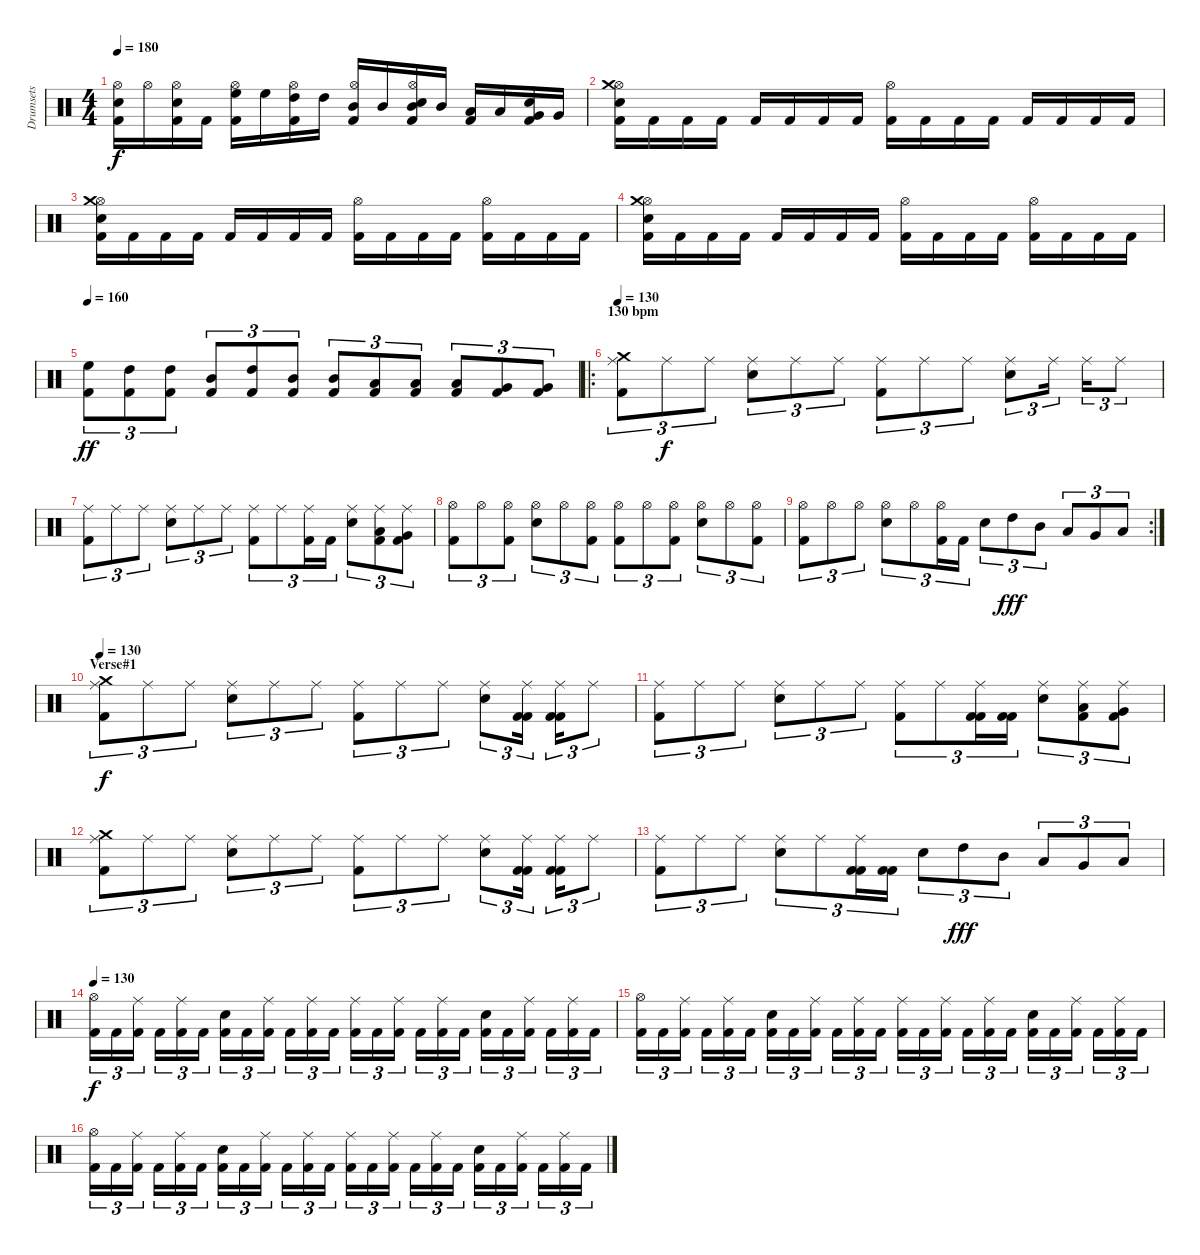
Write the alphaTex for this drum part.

\track ("Drumsets" "Drumsets") {instrument percussion}
\staff {score}
\articulation defaults
\ts (4 4)
\tempo 180
\clef neutral
\ks c
("Kick (hit) 2" "Snare (hit) 2" "Hi-Hat (open)").16{dy f} "Hi-Hat (open)".16 ("Kick (hit) 2" "Snare (hit) 2" "Hi-Hat (open)").16 "Kick (hit) 2".16 ("Kick (hit) 2" "Hi-Hat (open)" "High Floor Tom (hit)").16{balance 0} "High Floor Tom (hit)".16 ("Kick (hit) 2" "Hi-Hat (open)" "High Tom (hit)").16{balance 16} "High Tom (hit)".16 ("Kick (hit) 2" "Hi-Hat (open)" "Mid Tom (hit)").16{balance 0} "Mid Tom (hit)".16 ("Kick (hit) 2" "Snare (hit) 2" "Hi-Hat (open)" "Mid Tom (hit)").16{balance 16} "Mid Tom (hit)".16 ("Kick (hit) 2" "Low Tom (hit)").16{balance 0} "Low Tom (hit)".16 ("Kick (hit) 2" "Snare (hit) 2" "Very Low Tom (hit)").16{balance 16} "Very Low Tom (hit)".16 |
("Kick (hit) 2" "Snare (hit) 2" "Hi-Hat (open)" "Crash medium (hit)").16 "Kick (hit) 2".16 "Kick (hit) 2".16 "Kick (hit) 2".16 "Kick (hit) 2".16 "Kick (hit) 2".16 "Kick (hit) 2".16 "Kick (hit) 2".16 ("Kick (hit) 2" "Hi-Hat (open)").16 "Kick (hit) 2".16 "Kick (hit) 2".16 "Kick (hit) 2".16 "Kick (hit) 2".16 "Kick (hit) 2".16 "Kick (hit) 2".16 "Kick (hit) 2".16 |
("Kick (hit) 2" "Snare (hit) 2" "Hi-Hat (open)" "Crash medium (hit)").16 "Kick (hit) 2".16 "Kick (hit) 2".16 "Kick (hit) 2".16 "Kick (hit) 2".16 "Kick (hit) 2".16 "Kick (hit) 2".16 "Kick (hit) 2".16 ("Kick (hit) 2" "Hi-Hat (open)").16 "Kick (hit) 2".16 "Kick (hit) 2".16 "Kick (hit) 2".16 ("Kick (hit) 2" "Hi-Hat (open)").16 "Kick (hit) 2".16 "Kick (hit) 2".16 "Kick (hit) 2".16 |
("Kick (hit) 2" "Snare (hit) 2" "Hi-Hat (open)" "Crash medium (hit)").16 "Kick (hit) 2".16 "Kick (hit) 2".16 "Kick (hit) 2".16 "Kick (hit) 2".16 "Kick (hit) 2".16 "Kick (hit) 2".16 "Kick (hit) 2".16 ("Kick (hit) 2" "Hi-Hat (open)").16 "Kick (hit) 2".16 "Kick (hit) 2".16 "Kick (hit) 2".16 ("Kick (hit) 2" "Hi-Hat (open)").16 "Kick (hit) 2".16 "Kick (hit) 2".16 "Kick (hit) 2".16 |
\tempo 160
("Kick (hit) 2" "High Floor Tom (hit)").8{tu (3 2) dy ff} ("Kick (hit) 2" "High Tom (hit)").8{tu (3 2)} ("Kick (hit) 2" "High Tom (hit)").8{tu (3 2)} ("Kick (hit) 2" "Mid Tom (hit)").8{tu (3 2)} ("Kick (hit) 2" "High Tom (hit)").8{tu (3 2)} ("Kick (hit) 2" "Mid Tom (hit)").8{tu (3 2)} ("Kick (hit) 2" "Mid Tom (hit)").8{tu (3 2)} ("Kick (hit) 2" "Low Tom (hit)").8{tu (3 2)} ("Kick (hit) 2" "Low Tom (hit)").8{tu (3 2)} ("Kick (hit) 2" "Low Tom (hit)").8{tu (3 2)} ("Kick (hit) 2" "Very Low Tom (hit)").8{tu (3 2)} ("Kick (hit) 2" "Very Low Tom (hit)").8{tu (3 2)} |
\ro
\section ("" "130 bpm")
\tempo 130
("Kick (hit) 2" "Ride (middle)" "Crash medium (hit)").8{tu (3 2)} "Ride (middle)".8{tu (3 2) dy f} "Ride (middle)".8{tu (3 2)} ("Snare (hit) 2" "Ride (middle)").8{tu (3 2)} "Ride (middle)".8{tu (3 2)} "Ride (middle)".8{tu (3 2)} ("Kick (hit) 2" "Ride (middle)").8{tu (3 2)} "Ride (middle)".8{tu (3 2)} "Ride (middle)".8{tu (3 2)} ("Snare (hit) 2" "Ride (middle)").8{tu (3 2)} "Ride (middle)".16{tu (3 2)} "Ride (middle)".16{tu (3 2)} "Ride (middle)".8{tu (3 2)} |
("Kick (hit) 2" "Ride (middle)").8{tu (3 2)} "Ride (middle)".8{tu (3 2)} "Ride (middle)".8{tu (3 2)} ("Snare (hit) 2" "Ride (middle)").8{tu (3 2)} "Ride (middle)".8{tu (3 2)} "Ride (middle)".8{tu (3 2)} ("Kick (hit) 2" "Ride (middle)").8{tu (3 2)} "Ride (middle)".8{tu (3 2)} ("Kick (hit) 2" "Ride (middle)").16{tu (3 2)} "Kick (hit) 2".16{tu (3 2)} ("Snare (hit) 2" "Ride (middle)").8{tu (3 2)} ("Kick (hit) 2" "Low Tom (hit)" "Ride (middle)").8{tu (3 2)} ("Kick (hit) 2" "Very Low Tom (hit)" "Ride (middle)").8{tu (3 2)} |
("Kick (hit) 2" "Hi-Hat (open)").8{tu (3 2)} "Hi-Hat (open)".8{tu (3 2)} ("Kick (hit) 2" "Hi-Hat (open)").8{tu (3 2)} ("Snare (hit) 2" "Hi-Hat (open)").8{tu (3 2)} "Hi-Hat (open)".8{tu (3 2)} ("Kick (hit) 2" "Hi-Hat (open)").8{tu (3 2)} ("Kick (hit) 2" "Hi-Hat (open)").8{tu (3 2)} "Hi-Hat (open)".8{tu (3 2)} ("Kick (hit) 2" "Hi-Hat (open)").8{tu (3 2)} ("Snare (hit) 2" "Hi-Hat (open)").8{tu (3 2)} "Hi-Hat (open)".8{tu (3 2)} ("Kick (hit) 2" "Hi-Hat (open)").8{tu (3 2)} |
\rc 2
("Kick (hit) 2" "Hi-Hat (open)").8{tu (3 2)} "Hi-Hat (open)".8{tu (3 2)} "Hi-Hat (open)".8{tu (3 2)} ("Snare (hit) 2" "Hi-Hat (open)").8{tu (3 2)} "Hi-Hat (open)".8{tu (3 2)} ("Kick (hit) 2" "Hi-Hat (open)").16{tu (3 2)} "Kick (hit) 2".16{tu (3 2)} "Electric Snare (hit)".8{tu (3 2)} "High Tom (hit)".8{tu (3 2) dy fff} "Mid Tom (hit)".8{tu (3 2)} "Low Tom (hit)".8{tu (3 2)} "Very Low Tom (hit)".8{tu (3 2)} "Low Floor Tom (hit)".8{tu (3 2)} |
\section ("" "Verse#1")
\tempo 130
("Kick (hit) 2" "Ride (middle)" "Crash medium (hit)").8{tu (3 2) dy f} "Ride (middle)".8{tu (3 2)} "Ride (middle)".8{tu (3 2)} ("Snare (hit) 2" "Ride (middle)").8{tu (3 2)} "Ride (middle)".8{tu (3 2)} "Ride (middle)".8{tu (3 2)} ("Kick (hit) 2" "Ride (middle)").8{tu (3 2)} "Ride (middle)".8{tu (3 2)} "Ride (middle)".8{tu (3 2)} ("Snare (hit) 2" "Ride (middle)").8{tu (3 2)} ("Kick (hit) 2" "Ride (middle)" "Kick (hit) 2").16{tu (3 2)} ("Kick (hit) 2" "Ride (middle)" "Kick (hit) 2").16{tu (3 2)} "Ride (middle)".8{tu (3 2)} |
("Kick (hit) 2" "Ride (middle)").8{tu (3 2)} "Ride (middle)".8{tu (3 2)} "Ride (middle)".8{tu (3 2)} ("Snare (hit) 2" "Ride (middle)").8{tu (3 2)} "Ride (middle)".8{tu (3 2)} "Ride (middle)".8{tu (3 2)} ("Kick (hit) 2" "Ride (middle)").8{tu (3 2)} "Ride (middle)".8{tu (3 2)} ("Kick (hit) 2" "Ride (middle)" "Kick (hit) 2").16{tu (3 2)} ("Kick (hit) 2" "Kick (hit) 2").16{tu (3 2)} ("Snare (hit) 2" "Ride (middle)").8{tu (3 2)} ("Kick (hit) 2" "Low Tom (hit)" "Ride (middle)").8{tu (3 2)} ("Kick (hit) 2" "Very Low Tom (hit)" "Ride (middle)").8{tu (3 2)} |
("Kick (hit) 2" "Ride (middle)" "Crash medium (hit)").8{tu (3 2)} "Ride (middle)".8{tu (3 2)} "Ride (middle)".8{tu (3 2)} ("Snare (hit) 2" "Ride (middle)").8{tu (3 2)} "Ride (middle)".8{tu (3 2)} "Ride (middle)".8{tu (3 2)} ("Kick (hit) 2" "Ride (middle)").8{tu (3 2)} "Ride (middle)".8{tu (3 2)} "Ride (middle)".8{tu (3 2)} ("Snare (hit) 2" "Ride (middle)").8{tu (3 2)} ("Kick (hit) 2" "Ride (middle)" "Kick (hit) 2").16{tu (3 2)} ("Kick (hit) 2" "Ride (middle)" "Kick (hit) 2").16{tu (3 2)} "Ride (middle)".8{tu (3 2)} |
("Kick (hit) 2" "Ride (middle)").8{tu (3 2)} "Ride (middle)".8{tu (3 2)} "Ride (middle)".8{tu (3 2)} ("Snare (hit) 2" "Ride (middle)").8{tu (3 2)} "Ride (middle)".8{tu (3 2)} ("Kick (hit) 2" "Ride (middle)" "Kick (hit) 2").16{tu (3 2)} ("Kick (hit) 2" "Kick (hit) 2").16{tu (3 2)} "Electric Snare (hit)".8{tu (3 2)} "High Tom (hit)".8{tu (3 2) dy fff} "Mid Tom (hit)".8{tu (3 2)} "Low Tom (hit)".8{tu (3 2)} "Very Low Tom (hit)".8{tu (3 2)} "Low Floor Tom (hit)".8{tu (3 2)} |
\tempo 130
("Hi-Hat (open)" "Kick (hit) 2").16{tu (3 2) dy f} "Kick (hit) 2".16{tu (3 2)} ("Ride (middle)" "Kick (hit) 2").16{tu (3 2)} "Kick (hit) 2".16{tu (3 2)} ("Ride (middle)" "Kick (hit) 2").16{tu (3 2)} "Kick (hit) 2".16{tu (3 2)} ("Snare (hit) 2" "Kick (hit) 2").16{tu (3 2)} "Kick (hit) 2".16{tu (3 2)} ("Ride (middle)" "Kick (hit) 2").16{tu (3 2)} "Kick (hit) 2".16{tu (3 2)} ("Ride (middle)" "Kick (hit) 2").16{tu (3 2)} "Kick (hit) 2".16{tu (3 2)} ("Ride (middle)" "Kick (hit) 2").16{tu (3 2)} "Kick (hit) 2".16{tu (3 2)} ("Ride (middle)" "Kick (hit) 2").16{tu (3 2)} "Kick (hit) 2".16{tu (3 2)} ("Ride (middle)" "Kick (hit) 2").16{tu (3 2)} "Kick (hit) 2".16{tu (3 2)} ("Snare (hit) 2" "Kick (hit) 2").16{tu (3 2)} "Kick (hit) 2".16{tu (3 2)} ("Ride (middle)" "Kick (hit) 2").16{tu (3 2)} "Kick (hit) 2".16{tu (3 2)} ("Ride (middle)" "Kick (hit) 2").16{tu (3 2)} "Kick (hit) 2".16{tu (3 2)} |
("Hi-Hat (open)" "Kick (hit) 2").16{tu (3 2)} "Kick (hit) 2".16{tu (3 2)} ("Ride (middle)" "Kick (hit) 2").16{tu (3 2)} "Kick (hit) 2".16{tu (3 2)} ("Ride (middle)" "Kick (hit) 2").16{tu (3 2)} "Kick (hit) 2".16{tu (3 2)} ("Snare (hit) 2" "Kick (hit) 2").16{tu (3 2)} "Kick (hit) 2".16{tu (3 2)} ("Ride (middle)" "Kick (hit) 2").16{tu (3 2)} "Kick (hit) 2".16{tu (3 2)} ("Ride (middle)" "Kick (hit) 2").16{tu (3 2)} "Kick (hit) 2".16{tu (3 2)} ("Ride (middle)" "Kick (hit) 2").16{tu (3 2)} "Kick (hit) 2".16{tu (3 2)} ("Ride (middle)" "Kick (hit) 2").16{tu (3 2)} "Kick (hit) 2".16{tu (3 2)} ("Ride (middle)" "Kick (hit) 2").16{tu (3 2)} "Kick (hit) 2".16{tu (3 2)} ("Snare (hit) 2" "Kick (hit) 2").16{tu (3 2)} "Kick (hit) 2".16{tu (3 2)} ("Ride (middle)" "Kick (hit) 2").16{tu (3 2)} "Kick (hit) 2".16{tu (3 2)} ("Ride (middle)" "Kick (hit) 2").16{tu (3 2)} "Kick (hit) 2".16{tu (3 2)} |
("Hi-Hat (open)" "Kick (hit) 2").16{tu (3 2)} "Kick (hit) 2".16{tu (3 2)} ("Ride (middle)" "Kick (hit) 2").16{tu (3 2)} "Kick (hit) 2".16{tu (3 2)} ("Ride (middle)" "Kick (hit) 2").16{tu (3 2)} "Kick (hit) 2".16{tu (3 2)} ("Snare (hit) 2" "Kick (hit) 2").16{tu (3 2)} "Kick (hit) 2".16{tu (3 2)} ("Ride (middle)" "Kick (hit) 2").16{tu (3 2)} "Kick (hit) 2".16{tu (3 2)} ("Ride (middle)" "Kick (hit) 2").16{tu (3 2)} "Kick (hit) 2".16{tu (3 2)} ("Ride (middle)" "Kick (hit) 2").16{tu (3 2)} "Kick (hit) 2".16{tu (3 2)} ("Ride (middle)" "Kick (hit) 2").16{tu (3 2)} "Kick (hit) 2".16{tu (3 2)} ("Ride (middle)" "Kick (hit) 2").16{tu (3 2)} "Kick (hit) 2".16{tu (3 2)} ("Snare (hit) 2" "Kick (hit) 2").16{tu (3 2)} "Kick (hit) 2".16{tu (3 2)} ("Ride (middle)" "Kick (hit) 2").16{tu (3 2)} "Kick (hit) 2".16{tu (3 2)} ("Ride (middle)" "Kick (hit) 2").16{tu (3 2)} "Kick (hit) 2".16{tu (3 2)}
